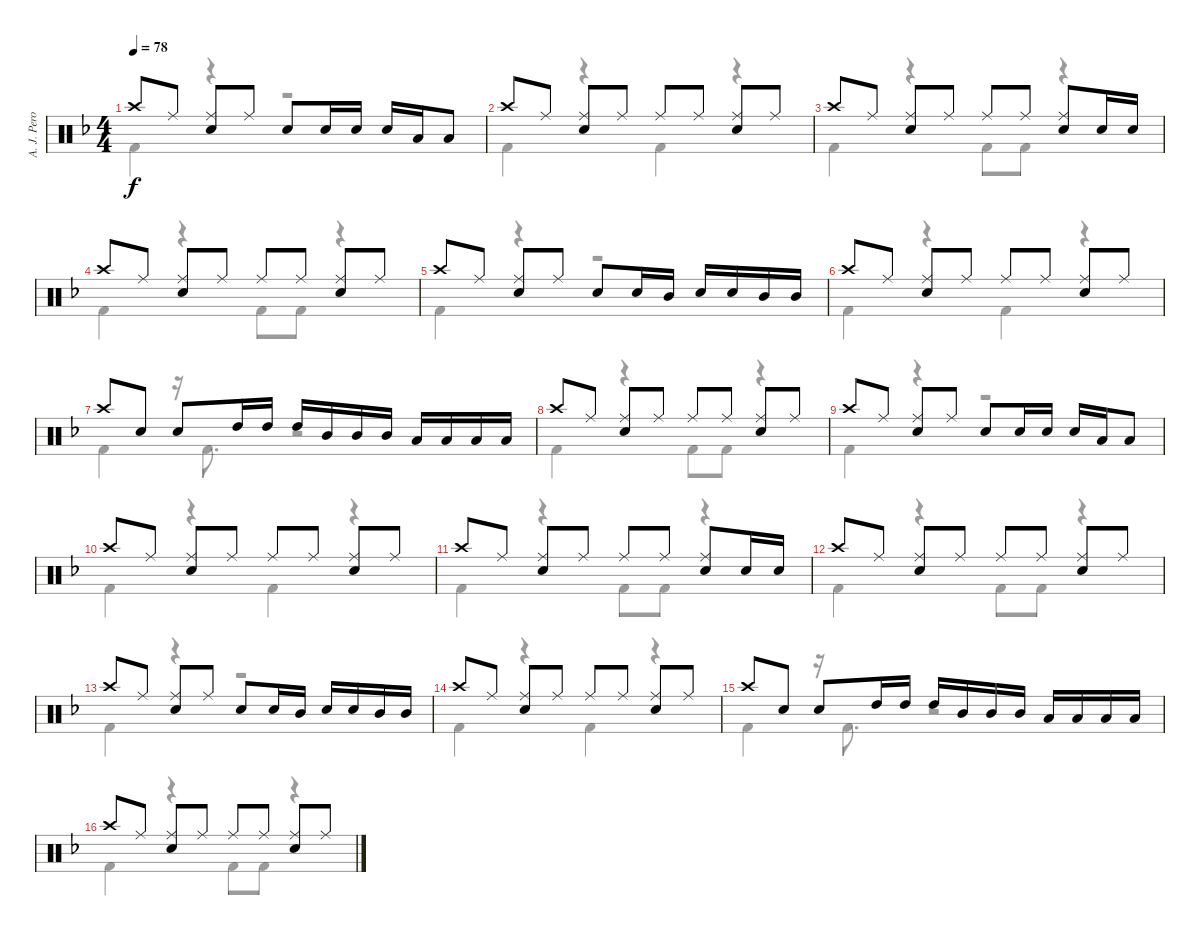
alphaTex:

\track ("A. J. Pero" "A. J. Pero") {instrument percussion}
\staff {score}
\articulation defaults
\voice
\ts (4 4)
\tempo 78
\clef neutral
\ks dminor "Crash high (hit)".8{dy f} "Ride (middle)".8
("Ride (middle)" "Snare (hit) 2").8 "Ride (middle)".8 "Snare (hit) 2".8 "Snare (hit) 2".16 "Snare (hit) 2".16 "Snare (hit) 2".16 "Low Tom (hit)".16 "Low Tom (hit)".8 |
"Crash high (hit)".8 "Ride (middle)".8 ("Ride (middle)" "Snare (hit) 2").8 "Ride (middle)".8 "Ride (middle)".8 "Ride (middle)".8 ("Ride (middle)" "Snare (hit) 2").8 "Ride (middle)".8 |
"Crash high (hit)".8 "Ride (middle)".8 ("Ride (middle)" "Snare (hit) 2").8 "Ride (middle)".8 "Ride (middle)".8 "Ride (middle)".8 ("Ride (middle)" "Snare (hit) 2").8 "Snare (hit) 2".16 "Snare (hit) 2".16 |
"Crash high (hit)".8 "Ride (middle)".8 ("Ride (middle)" "Snare (hit) 2").8 "Ride (middle)".8 "Ride (middle)".8 "Ride (middle)".8 ("Ride (middle)" "Snare (hit) 2").8 "Ride (middle)".8 |
"Crash high (hit)".8 "Ride (middle)".8 ("Ride (middle)" "Snare (hit) 2").8 "Ride (middle)".8 "Snare (hit) 2".8 "Snare (hit) 2".16 "Mid Tom (hit)".16 "Snare (hit) 2".16 "Snare (hit) 2".16 "Mid Tom (hit)".16 "Mid Tom (hit)".16 |
"Crash high (hit)".8 "Ride (middle)".8 ("Ride (middle)" "Snare (hit) 2").8 "Ride (middle)".8 "Ride (middle)".8 "Ride (middle)".8 ("Ride (middle)" "Snare (hit) 2").8 "Ride (middle)".8 |
"Crash high (hit)".8 "Snare (hit) 2".8 "Snare (hit) 2".8 "High Tom (hit)".16 "High Tom (hit)".16 "High Tom (hit)".16 "Mid Tom (hit)".16 "Mid Tom (hit)".16 "Mid Tom (hit)".16 "Low Tom (hit)".16 "Low Tom (hit)".16 "Low Tom (hit)".16 "Low Tom (hit)".16 |
"Crash high (hit)".8 "Ride (middle)".8 ("Ride (middle)" "Snare (hit) 2").8 "Ride (middle)".8 "Ride (middle)".8 "Ride (middle)".8 ("Ride (middle)" "Snare (hit) 2").8 "Ride (middle)".8 |
"Crash high (hit)".8 "Ride (middle)".8 ("Ride (middle)" "Snare (hit) 2").8 "Ride (middle)".8 "Snare (hit) 2".8 "Snare (hit) 2".16 "Snare (hit) 2".16 "Snare (hit) 2".16 "Low Tom (hit)".16 "Low Tom (hit)".8 |
"Crash high (hit)".8 "Ride (middle)".8 ("Ride (middle)" "Snare (hit) 2").8 "Ride (middle)".8 "Ride (middle)".8 "Ride (middle)".8 ("Ride (middle)" "Snare (hit) 2").8 "Ride (middle)".8 |
"Crash high (hit)".8 "Ride (middle)".8 ("Ride (middle)" "Snare (hit) 2").8 "Ride (middle)".8 "Ride (middle)".8 "Ride (middle)".8 ("Ride (middle)" "Snare (hit) 2").8 "Snare (hit) 2".16 "Snare (hit) 2".16 |
"Crash high (hit)".8 "Ride (middle)".8 ("Ride (middle)" "Snare (hit) 2").8 "Ride (middle)".8 "Ride (middle)".8 "Ride (middle)".8 ("Ride (middle)" "Snare (hit) 2").8 "Ride (middle)".8 |
"Crash high (hit)".8 "Ride (middle)".8 ("Ride (middle)" "Snare (hit) 2").8 "Ride (middle)".8 "Snare (hit) 2".8 "Snare (hit) 2".16 "Mid Tom (hit)".16 "Snare (hit) 2".16 "Snare (hit) 2".16 "Mid Tom (hit)".16 "Mid Tom (hit)".16 |
"Crash high (hit)".8 "Ride (middle)".8 ("Ride (middle)" "Snare (hit) 2").8 "Ride (middle)".8 "Ride (middle)".8 "Ride (middle)".8 ("Ride (middle)" "Snare (hit) 2").8 "Ride (middle)".8 |
"Crash high (hit)".8 "Snare (hit) 2".8 "Snare (hit) 2".8 "High Tom (hit)".16 "High Tom (hit)".16 "High Tom (hit)".16 "Mid Tom (hit)".16 "Mid Tom (hit)".16 "Mid Tom (hit)".16 "Low Tom (hit)".16 "Low Tom (hit)".16 "Low Tom (hit)".16 "Low Tom (hit)".16 |
"Crash high (hit)".8 "Ride (middle)".8 ("Ride (middle)" "Snare (hit) 2").8 "Ride (middle)".8 "Ride (middle)".8 "Ride (middle)".8 ("Ride (middle)" "Snare (hit) 2").8 "Ride (middle)".8
\voice
\clef neutral
\ottava regular
\simile none
\ks dminor "Kick (hit) 2".4{dy f}
r.4 r.2 |
"Kick (hit) 2".4 r.4 "Kick (hit) 2".4 r.4 |
"Kick (hit) 2".4 r.4 "Kick (hit) 2".8 "Kick (hit) 2".8 r.4 |
"Kick (hit) 2".4 r.4 "Kick (hit) 2".8 "Kick (hit) 2".8 r.4 |
"Kick (hit) 2".4 r.4 r.2 |
"Kick (hit) 2".4 r.4 "Kick (hit) 2".4 r.4 |
"Kick (hit) 2".4 r.16 "Kick (hit) 2".8{d} r.2 |
"Kick (hit) 2".4 r.4 "Kick (hit) 2".8 "Kick (hit) 2".8 r.4 |
"Kick (hit) 2".4 r.4 r.2 |
"Kick (hit) 2".4 r.4 "Kick (hit) 2".4 r.4 |
"Kick (hit) 2".4 r.4 "Kick (hit) 2".8 "Kick (hit) 2".8 r.4 |
"Kick (hit) 2".4 r.4 "Kick (hit) 2".8 "Kick (hit) 2".8 r.4 |
"Kick (hit) 2".4 r.4 r.2 |
"Kick (hit) 2".4 r.4 "Kick (hit) 2".4 r.4 |
"Kick (hit) 2".4 r.16 "Kick (hit) 2".8{d} r.2 |
"Kick (hit) 2".4 r.4 "Kick (hit) 2".8 "Kick (hit) 2".8 r.4
